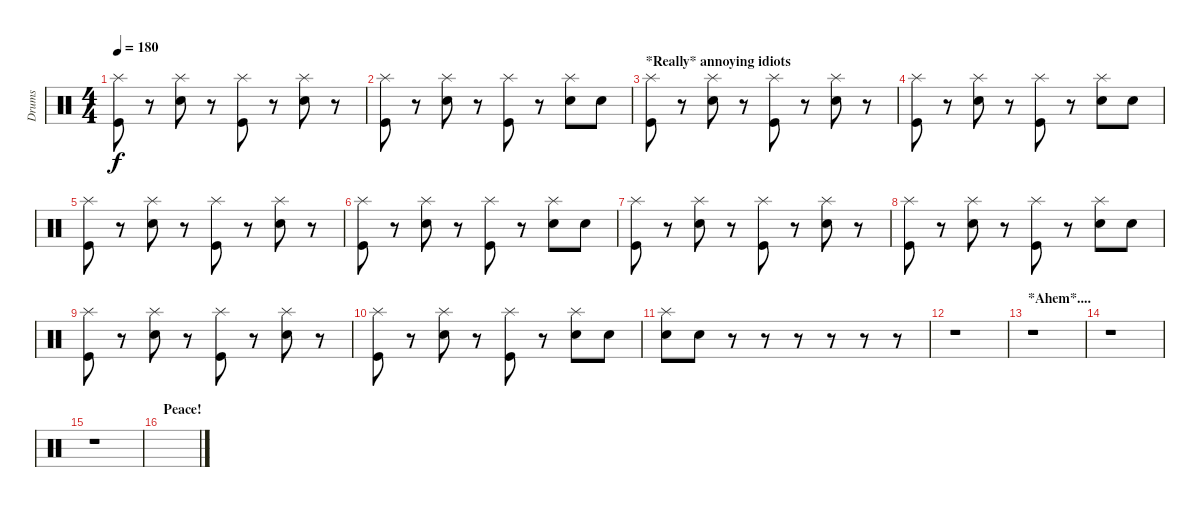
\track ("Drums" "Drums") {instrument percussion}
\staff {score}
\articulation defaults
\ts (4 4)
\tempo 180
\clef neutral
\ks c
("Splash (hit)" "Kick (hit)").8{dy f} r.8 ("Splash (hit)" "Electric Snare (hit)").8 r.8 ("Splash (hit)" "Kick (hit)").8 r.8 ("Splash (hit)" "Electric Snare (hit)").8 r.8 |
("Splash (hit)" "Kick (hit)").8 r.8 ("Splash (hit)" "Electric Snare (hit)").8 r.8 ("Splash (hit)" "Kick (hit)").8 r.8 ("Splash (hit)" "Electric Snare (hit)").8 "Electric Snare (hit)".8 |
\section ("" "*Really* annoying idiots")
("Splash (hit)" "Kick (hit)").8 r.8 ("Splash (hit)" "Electric Snare (hit)").8 r.8 ("Splash (hit)" "Kick (hit)").8 r.8 ("Splash (hit)" "Electric Snare (hit)").8 r.8 |
("Splash (hit)" "Kick (hit)").8 r.8 ("Splash (hit)" "Electric Snare (hit)").8 r.8 ("Splash (hit)" "Kick (hit)").8 r.8 ("Splash (hit)" "Electric Snare (hit)").8 "Electric Snare (hit)".8 |
("Splash (hit)" "Kick (hit)").8 r.8 ("Splash (hit)" "Electric Snare (hit)").8 r.8 ("Splash (hit)" "Kick (hit)").8 r.8 ("Splash (hit)" "Electric Snare (hit)").8 r.8 |
("Splash (hit)" "Kick (hit)").8 r.8 ("Splash (hit)" "Electric Snare (hit)").8 r.8 ("Splash (hit)" "Kick (hit)").8 r.8 ("Splash (hit)" "Electric Snare (hit)").8 "Electric Snare (hit)".8 |
("Splash (hit)" "Kick (hit)").8 r.8 ("Splash (hit)" "Electric Snare (hit)").8 r.8 ("Splash (hit)" "Kick (hit)").8 r.8 ("Splash (hit)" "Electric Snare (hit)").8 r.8 |
("Splash (hit)" "Kick (hit)").8 r.8 ("Splash (hit)" "Electric Snare (hit)").8 r.8 ("Splash (hit)" "Kick (hit)").8 r.8 ("Splash (hit)" "Electric Snare (hit)").8 "Electric Snare (hit)".8 |
("Splash (hit)" "Kick (hit)").8 r.8 ("Splash (hit)" "Electric Snare (hit)").8 r.8 ("Splash (hit)" "Kick (hit)").8 r.8 ("Splash (hit)" "Electric Snare (hit)").8 r.8 |
("Splash (hit)" "Kick (hit)").8 r.8 ("Splash (hit)" "Electric Snare (hit)").8 r.8 ("Splash (hit)" "Kick (hit)").8 r.8 ("Splash (hit)" "Electric Snare (hit)").8 "Electric Snare (hit)".8 |
("Splash (hit)" "Electric Snare (hit)").8 "Electric Snare (hit)".8 r.8 r.8 r.8 r.8 r.8 r.8 |
r.1 |
\section ("" "*Ahem*....")
r.1 |
r.1 |
r.1 |
\section ("" "Peace!")
